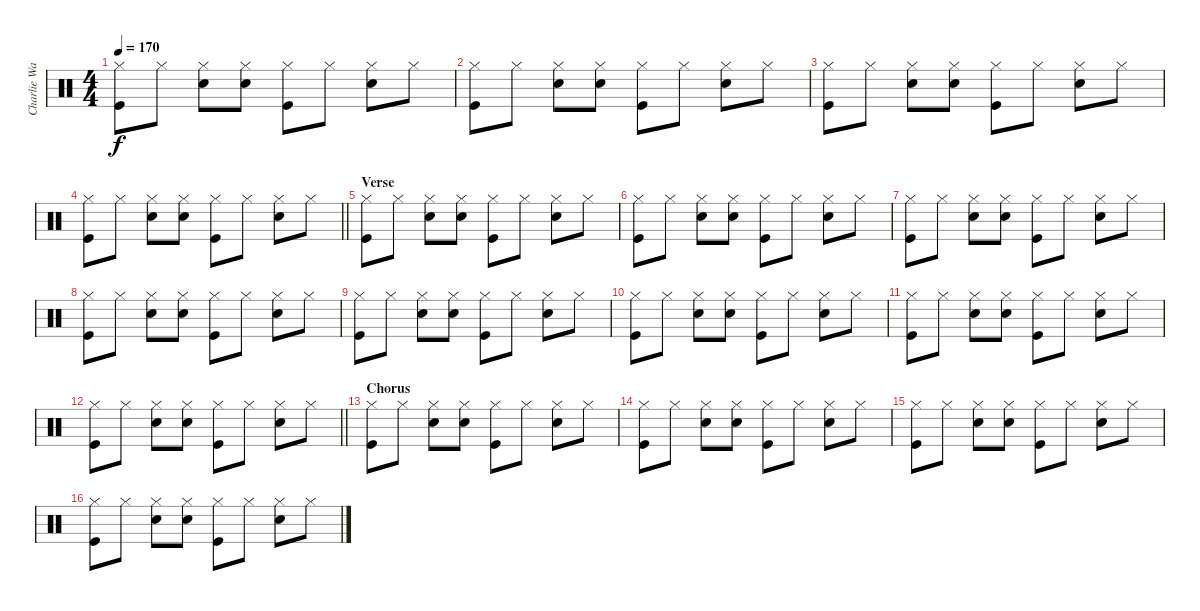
\track ("Charlie Watts" "Charlie Wa") {instrument percussion}
\staff {score}
\articulation defaults
\ts (4 4)
\tempo 170
\clef neutral
\ks c
("Hi-Hat (closed)" "Kick (hit)").8{dy f} "Hi-Hat (closed)".8 ("Hi-Hat (closed)" "Snare (hit) 2").8 ("Hi-Hat (closed)" "Snare (hit) 2").8 ("Hi-Hat (closed)" "Kick (hit)").8 "Hi-Hat (closed)".8 ("Hi-Hat (closed)" "Snare (hit) 2").8 "Hi-Hat (closed)".8 |
("Hi-Hat (closed)" "Kick (hit)").8 "Hi-Hat (closed)".8 ("Hi-Hat (closed)" "Snare (hit) 2").8 ("Hi-Hat (closed)" "Snare (hit) 2").8 ("Hi-Hat (closed)" "Kick (hit)").8 "Hi-Hat (closed)".8 ("Hi-Hat (closed)" "Snare (hit) 2").8 "Hi-Hat (closed)".8 |
("Hi-Hat (closed)" "Kick (hit)").8 "Hi-Hat (closed)".8 ("Hi-Hat (closed)" "Snare (hit) 2").8 ("Hi-Hat (closed)" "Snare (hit) 2").8 ("Hi-Hat (closed)" "Kick (hit)").8 "Hi-Hat (closed)".8 ("Hi-Hat (closed)" "Snare (hit) 2").8 "Hi-Hat (closed)".8 |
\barLineRight lightlight
("Hi-Hat (closed)" "Kick (hit)").8 "Hi-Hat (closed)".8 ("Hi-Hat (closed)" "Snare (hit) 2").8 ("Hi-Hat (closed)" "Snare (hit) 2").8 ("Hi-Hat (closed)" "Kick (hit)").8 "Hi-Hat (closed)".8 ("Hi-Hat (closed)" "Snare (hit) 2").8 "Hi-Hat (closed)".8 |
\section ("" "Verse")
("Hi-Hat (closed)" "Kick (hit)").8 "Hi-Hat (closed)".8 ("Hi-Hat (closed)" "Snare (hit) 2").8 ("Hi-Hat (closed)" "Snare (hit) 2").8 ("Hi-Hat (closed)" "Kick (hit)").8 "Hi-Hat (closed)".8 ("Hi-Hat (closed)" "Snare (hit) 2").8 "Hi-Hat (closed)".8 |
("Hi-Hat (closed)" "Kick (hit)").8 "Hi-Hat (closed)".8 ("Hi-Hat (closed)" "Snare (hit) 2").8 ("Hi-Hat (closed)" "Snare (hit) 2").8 ("Hi-Hat (closed)" "Kick (hit)").8 "Hi-Hat (closed)".8 ("Hi-Hat (closed)" "Snare (hit) 2").8 "Hi-Hat (closed)".8 |
("Hi-Hat (closed)" "Kick (hit)").8 "Hi-Hat (closed)".8 ("Hi-Hat (closed)" "Snare (hit) 2").8 ("Hi-Hat (closed)" "Snare (hit) 2").8 ("Hi-Hat (closed)" "Kick (hit)").8 "Hi-Hat (closed)".8 ("Hi-Hat (closed)" "Snare (hit) 2").8 "Hi-Hat (closed)".8 |
("Hi-Hat (closed)" "Kick (hit)").8 "Hi-Hat (closed)".8 ("Hi-Hat (closed)" "Snare (hit) 2").8 ("Hi-Hat (closed)" "Snare (hit) 2").8 ("Hi-Hat (closed)" "Kick (hit)").8 "Hi-Hat (closed)".8 ("Hi-Hat (closed)" "Snare (hit) 2").8 "Hi-Hat (closed)".8 |
("Hi-Hat (closed)" "Kick (hit)").8 "Hi-Hat (closed)".8 ("Hi-Hat (closed)" "Snare (hit) 2").8 ("Hi-Hat (closed)" "Snare (hit) 2").8 ("Hi-Hat (closed)" "Kick (hit)").8 "Hi-Hat (closed)".8 ("Hi-Hat (closed)" "Snare (hit) 2").8 "Hi-Hat (closed)".8 |
("Hi-Hat (closed)" "Kick (hit)").8 "Hi-Hat (closed)".8 ("Hi-Hat (closed)" "Snare (hit) 2").8 ("Hi-Hat (closed)" "Snare (hit) 2").8 ("Hi-Hat (closed)" "Kick (hit)").8 "Hi-Hat (closed)".8 ("Hi-Hat (closed)" "Snare (hit) 2").8 "Hi-Hat (closed)".8 |
("Hi-Hat (closed)" "Kick (hit)").8 "Hi-Hat (closed)".8 ("Hi-Hat (closed)" "Snare (hit) 2").8 ("Hi-Hat (closed)" "Snare (hit) 2").8 ("Hi-Hat (closed)" "Kick (hit)").8 "Hi-Hat (closed)".8 ("Hi-Hat (closed)" "Snare (hit) 2").8 "Hi-Hat (closed)".8 |
\barLineRight lightlight
("Hi-Hat (closed)" "Kick (hit)").8 "Hi-Hat (closed)".8 ("Hi-Hat (closed)" "Snare (hit) 2").8 ("Hi-Hat (closed)" "Snare (hit) 2").8 ("Hi-Hat (closed)" "Kick (hit)").8 "Hi-Hat (closed)".8 ("Hi-Hat (closed)" "Snare (hit) 2").8 "Hi-Hat (closed)".8 |
\section ("" "Chorus")
("Hi-Hat (closed)" "Kick (hit)").8 "Hi-Hat (closed)".8 ("Hi-Hat (closed)" "Snare (hit) 2").8 ("Hi-Hat (closed)" "Snare (hit) 2").8 ("Hi-Hat (closed)" "Kick (hit)").8 "Hi-Hat (closed)".8 ("Hi-Hat (closed)" "Snare (hit) 2").8 "Hi-Hat (closed)".8 |
("Hi-Hat (closed)" "Kick (hit)").8 "Hi-Hat (closed)".8 ("Hi-Hat (closed)" "Snare (hit) 2").8 ("Hi-Hat (closed)" "Snare (hit) 2").8 ("Hi-Hat (closed)" "Kick (hit)").8 "Hi-Hat (closed)".8 ("Hi-Hat (closed)" "Snare (hit) 2").8 "Hi-Hat (closed)".8 |
("Hi-Hat (closed)" "Kick (hit)").8 "Hi-Hat (closed)".8 ("Hi-Hat (closed)" "Snare (hit) 2").8 ("Hi-Hat (closed)" "Snare (hit) 2").8 ("Hi-Hat (closed)" "Kick (hit)").8 "Hi-Hat (closed)".8 ("Hi-Hat (closed)" "Snare (hit) 2").8 "Hi-Hat (closed)".8 |
("Hi-Hat (closed)" "Kick (hit)").8 "Hi-Hat (closed)".8 ("Hi-Hat (closed)" "Snare (hit) 2").8 ("Hi-Hat (closed)" "Snare (hit) 2").8 ("Hi-Hat (closed)" "Kick (hit)").8 "Hi-Hat (closed)".8 ("Hi-Hat (closed)" "Snare (hit) 2").8 "Hi-Hat (closed)".8
